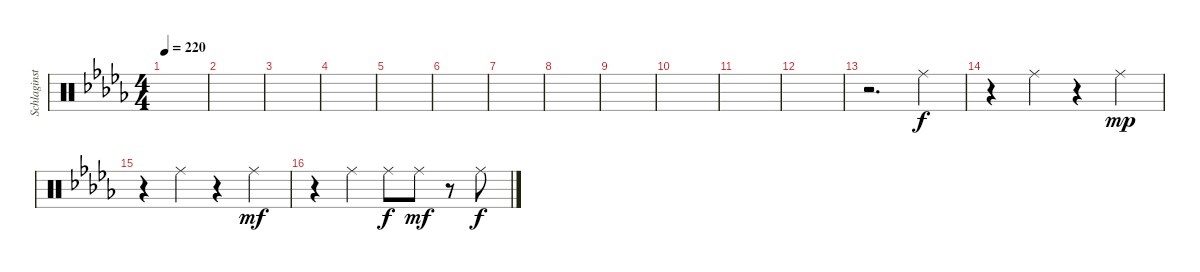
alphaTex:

\track ("Schlaginstrumente - Auswahl" "Schlaginst") {instrument percussion}
\staff {score}
\articulation defaults
\ts (4 4)
\tempo 220
\clef neutral
\ks bbminor
|
|
|
|
|
|
|
|
|
|
|
|
r.2{d} "Ride (middle)".4 |
r.4 "Ride (middle)".4 r.4 "Ride (middle)".4{dy mp} |
r.4 "Ride (middle)".4 r.4 "Ride (middle)".4{dy mf} |
r.4 "Ride (middle)".4 "Ride (middle)".8{dy f} "Ride (middle)".8{dy mf} r.8 "Ride (middle)".8{dy f}
